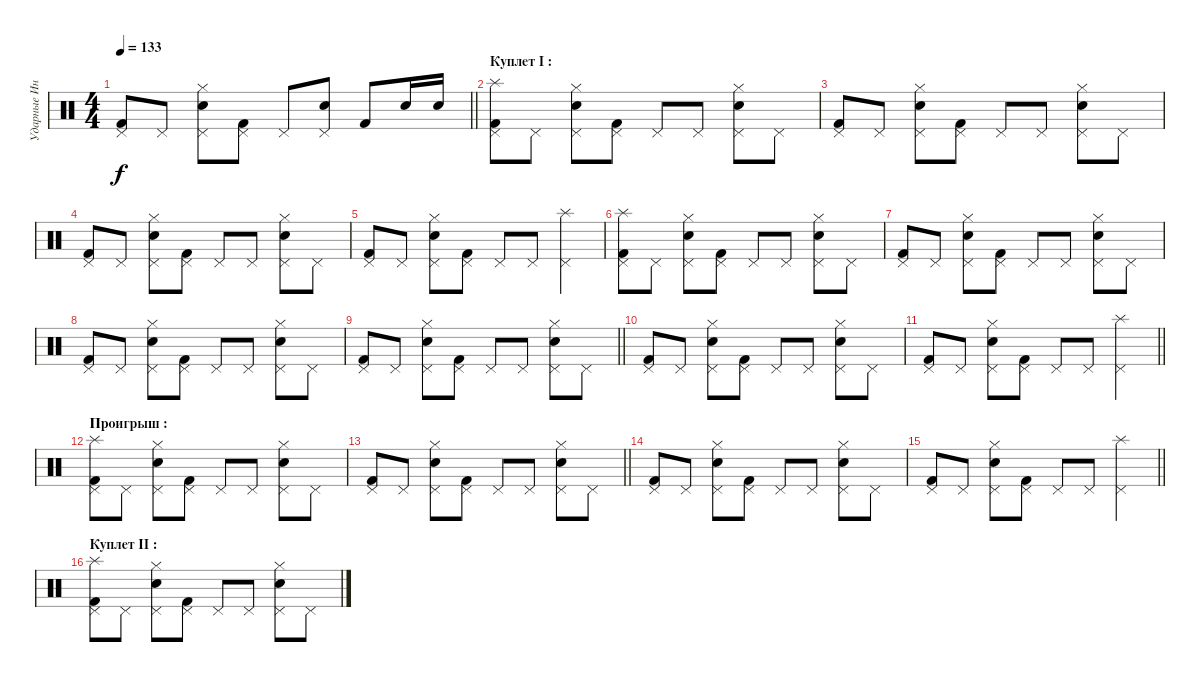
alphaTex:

\track ("Ударные Инструменты" "Ударные Ин") {instrument percussion}
\staff {score}
\articulation defaults
\ts (4 4)
\tempo 133
\clef neutral
\barLineRight lightlight
\ks c
("Pedal Hi-Hat (hit)" "Kick (hit) 2").8{dy f} "Pedal Hi-Hat (hit)".8 ("Electric Snare (hit)" "Pedal Hi-Hat (hit)" "Hi-Hat (closed)").8 ("Pedal Hi-Hat (hit)" "Kick (hit) 2").8 "Pedal Hi-Hat (hit)".8 ("Electric Snare (hit)" "Pedal Hi-Hat (hit)").8 "Kick (hit) 2".8 "Snare (hit) 2".16 "Snare (hit) 2".16 |
\section ("" "Куплет I :")
("Splash (hit)" "Pedal Hi-Hat (hit)" "Kick (hit) 2").8 "Pedal Hi-Hat (hit)".8 ("Electric Snare (hit)" "Pedal Hi-Hat (hit)" "Hi-Hat (closed)").8 ("Pedal Hi-Hat (hit)" "Kick (hit) 2").8 "Pedal Hi-Hat (hit)".8 "Pedal Hi-Hat (hit)".8 ("Electric Snare (hit)" "Pedal Hi-Hat (hit)" "Hi-Hat (closed)").8 "Pedal Hi-Hat (hit)".8 |
("Pedal Hi-Hat (hit)" "Kick (hit) 2").8 "Pedal Hi-Hat (hit)".8 ("Electric Snare (hit)" "Pedal Hi-Hat (hit)" "Hi-Hat (closed)").8 ("Pedal Hi-Hat (hit)" "Kick (hit) 2").8 "Pedal Hi-Hat (hit)".8 "Pedal Hi-Hat (hit)".8 ("Electric Snare (hit)" "Pedal Hi-Hat (hit)" "Hi-Hat (closed)").8 "Pedal Hi-Hat (hit)".8 |
("Pedal Hi-Hat (hit)" "Kick (hit) 2").8 "Pedal Hi-Hat (hit)".8 ("Electric Snare (hit)" "Pedal Hi-Hat (hit)" "Hi-Hat (closed)").8 ("Pedal Hi-Hat (hit)" "Kick (hit) 2").8 "Pedal Hi-Hat (hit)".8 "Pedal Hi-Hat (hit)".8 ("Electric Snare (hit)" "Pedal Hi-Hat (hit)" "Hi-Hat (closed)").8 "Pedal Hi-Hat (hit)".8 |
("Pedal Hi-Hat (hit)" "Kick (hit) 2").8 "Pedal Hi-Hat (hit)".8 ("Electric Snare (hit)" "Pedal Hi-Hat (hit)" "Hi-Hat (closed)").8 ("Pedal Hi-Hat (hit)" "Kick (hit) 2").8 "Pedal Hi-Hat (hit)".8 "Pedal Hi-Hat (hit)".8 ("Splash (hit)" "Pedal Hi-Hat (hit)").4 |
("Splash (hit)" "Pedal Hi-Hat (hit)" "Kick (hit) 2").8 "Pedal Hi-Hat (hit)".8 ("Electric Snare (hit)" "Pedal Hi-Hat (hit)" "Hi-Hat (closed)").8 ("Pedal Hi-Hat (hit)" "Kick (hit) 2").8 "Pedal Hi-Hat (hit)".8 "Pedal Hi-Hat (hit)".8 ("Electric Snare (hit)" "Pedal Hi-Hat (hit)" "Hi-Hat (closed)").8 "Pedal Hi-Hat (hit)".8 |
("Pedal Hi-Hat (hit)" "Kick (hit) 2").8 "Pedal Hi-Hat (hit)".8 ("Electric Snare (hit)" "Pedal Hi-Hat (hit)" "Hi-Hat (closed)").8 ("Pedal Hi-Hat (hit)" "Kick (hit) 2").8 "Pedal Hi-Hat (hit)".8 "Pedal Hi-Hat (hit)".8 ("Electric Snare (hit)" "Pedal Hi-Hat (hit)" "Hi-Hat (closed)").8 "Pedal Hi-Hat (hit)".8 |
("Pedal Hi-Hat (hit)" "Kick (hit) 2").8 "Pedal Hi-Hat (hit)".8 ("Electric Snare (hit)" "Pedal Hi-Hat (hit)" "Hi-Hat (closed)").8 ("Pedal Hi-Hat (hit)" "Kick (hit) 2").8 "Pedal Hi-Hat (hit)".8 "Pedal Hi-Hat (hit)".8 ("Electric Snare (hit)" "Pedal Hi-Hat (hit)" "Hi-Hat (closed)").8 "Pedal Hi-Hat (hit)".8 |
\barLineRight lightlight
("Pedal Hi-Hat (hit)" "Kick (hit) 2").8 "Pedal Hi-Hat (hit)".8 ("Electric Snare (hit)" "Pedal Hi-Hat (hit)" "Hi-Hat (closed)").8 ("Pedal Hi-Hat (hit)" "Kick (hit) 2").8 "Pedal Hi-Hat (hit)".8 "Pedal Hi-Hat (hit)".8 ("Electric Snare (hit)" "Pedal Hi-Hat (hit)" "Hi-Hat (closed)").8 "Pedal Hi-Hat (hit)".8 |
("Pedal Hi-Hat (hit)" "Kick (hit) 2").8 "Pedal Hi-Hat (hit)".8 ("Electric Snare (hit)" "Pedal Hi-Hat (hit)" "Hi-Hat (closed)").8 ("Pedal Hi-Hat (hit)" "Kick (hit) 2").8 "Pedal Hi-Hat (hit)".8 "Pedal Hi-Hat (hit)".8 ("Electric Snare (hit)" "Pedal Hi-Hat (hit)" "Hi-Hat (closed)").8 "Pedal Hi-Hat (hit)".8 |
\barLineRight lightlight
("Pedal Hi-Hat (hit)" "Kick (hit) 2").8 "Pedal Hi-Hat (hit)".8 ("Electric Snare (hit)" "Pedal Hi-Hat (hit)" "Hi-Hat (closed)").8 ("Pedal Hi-Hat (hit)" "Kick (hit) 2").8 "Pedal Hi-Hat (hit)".8 "Pedal Hi-Hat (hit)".8 ("Splash (hit)" "Pedal Hi-Hat (hit)").4 |
\section ("" "Проигрыш :")
("Splash (hit)" "Pedal Hi-Hat (hit)" "Kick (hit) 2").8 "Pedal Hi-Hat (hit)".8 ("Electric Snare (hit)" "Pedal Hi-Hat (hit)" "Hi-Hat (closed)").8 ("Pedal Hi-Hat (hit)" "Kick (hit) 2").8 "Pedal Hi-Hat (hit)".8 "Pedal Hi-Hat (hit)".8 ("Electric Snare (hit)" "Pedal Hi-Hat (hit)" "Hi-Hat (closed)").8 "Pedal Hi-Hat (hit)".8 |
\barLineRight lightlight
("Pedal Hi-Hat (hit)" "Kick (hit) 2").8 "Pedal Hi-Hat (hit)".8 ("Electric Snare (hit)" "Pedal Hi-Hat (hit)" "Hi-Hat (closed)").8 ("Pedal Hi-Hat (hit)" "Kick (hit) 2").8 "Pedal Hi-Hat (hit)".8 "Pedal Hi-Hat (hit)".8 ("Electric Snare (hit)" "Pedal Hi-Hat (hit)" "Hi-Hat (closed)").8 "Pedal Hi-Hat (hit)".8 |
("Pedal Hi-Hat (hit)" "Kick (hit) 2").8 "Pedal Hi-Hat (hit)".8 ("Electric Snare (hit)" "Pedal Hi-Hat (hit)" "Hi-Hat (closed)").8 ("Pedal Hi-Hat (hit)" "Kick (hit) 2").8 "Pedal Hi-Hat (hit)".8 "Pedal Hi-Hat (hit)".8 ("Electric Snare (hit)" "Pedal Hi-Hat (hit)" "Hi-Hat (closed)").8 "Pedal Hi-Hat (hit)".8 |
\barLineRight lightlight
("Pedal Hi-Hat (hit)" "Kick (hit) 2").8 "Pedal Hi-Hat (hit)".8 ("Electric Snare (hit)" "Pedal Hi-Hat (hit)" "Hi-Hat (closed)").8 ("Pedal Hi-Hat (hit)" "Kick (hit) 2").8 "Pedal Hi-Hat (hit)".8 "Pedal Hi-Hat (hit)".8 ("Splash (hit)" "Pedal Hi-Hat (hit)").4 |
\section ("" "Куплет II :")
("Splash (hit)" "Pedal Hi-Hat (hit)" "Kick (hit) 2").8 "Pedal Hi-Hat (hit)".8 ("Electric Snare (hit)" "Pedal Hi-Hat (hit)" "Hi-Hat (closed)").8 ("Pedal Hi-Hat (hit)" "Kick (hit) 2").8 "Pedal Hi-Hat (hit)".8 "Pedal Hi-Hat (hit)".8 ("Electric Snare (hit)" "Pedal Hi-Hat (hit)" "Hi-Hat (closed)").8 "Pedal Hi-Hat (hit)".8
